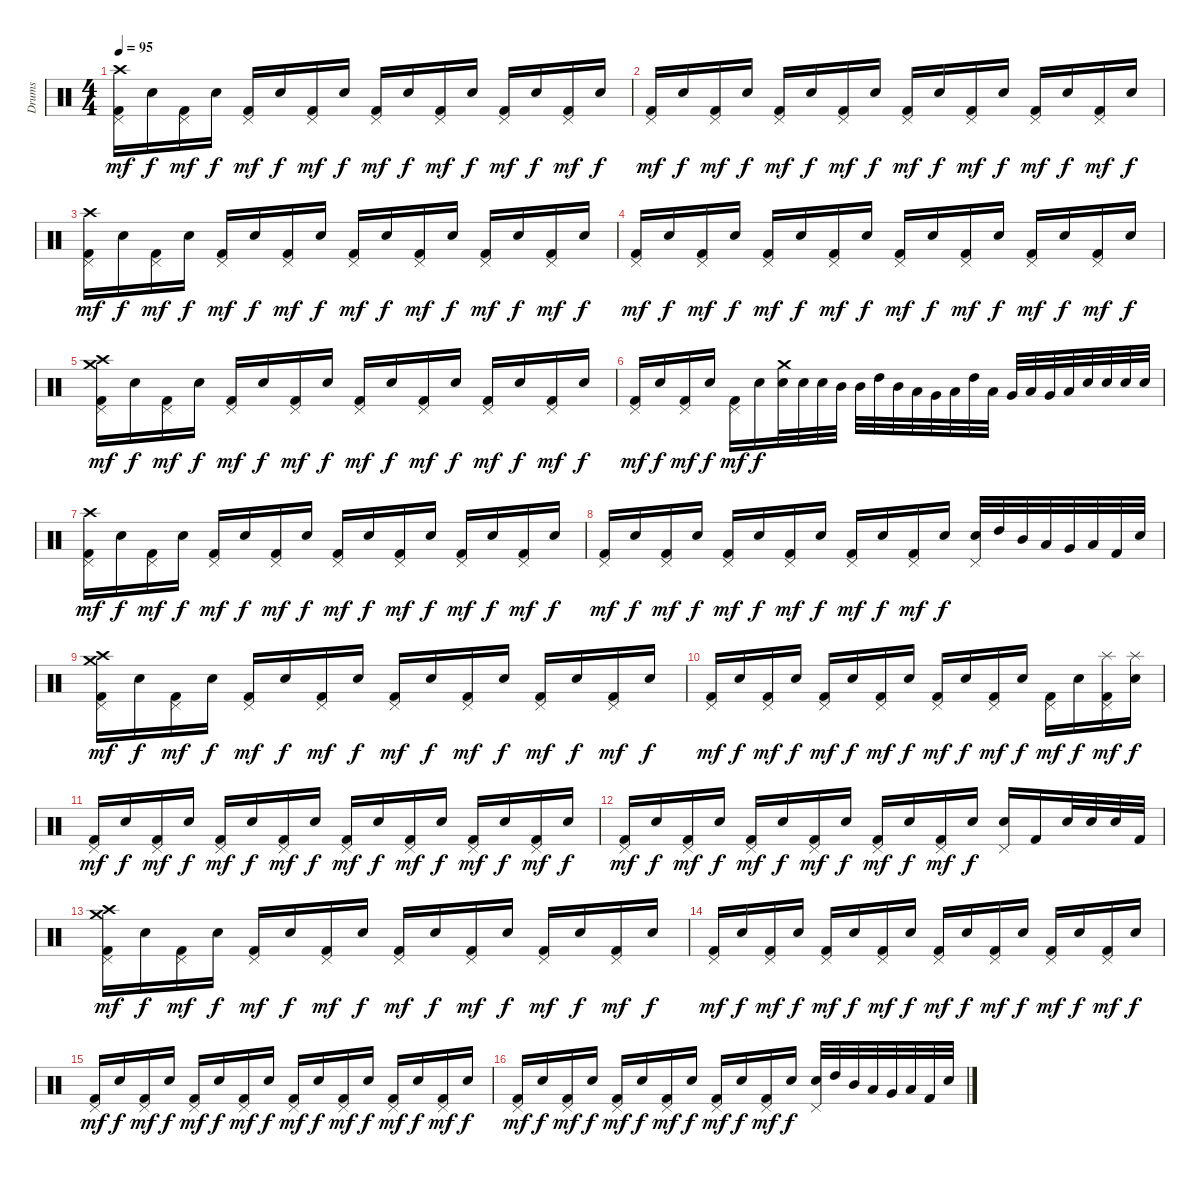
\track ("Drums" "Drums") {instrument percussion}
\staff {score}
\articulation defaults
\ts (4 4)
\tempo 95
\clef neutral
\ks c
("Crash high (hit)" "Pedal Hi-Hat (hit)" "Kick (hit) 2").16{dy mf} "Snare (hit) 2".16{dy f} ("Pedal Hi-Hat (hit)" "Kick (hit) 2").16{dy mf} "Snare (hit) 2".16{dy f} ("Pedal Hi-Hat (hit)" "Kick (hit) 2").16{dy mf} "Snare (hit) 2".16{dy f} ("Pedal Hi-Hat (hit)" "Kick (hit) 2").16{dy mf} "Snare (hit) 2".16{dy f} ("Pedal Hi-Hat (hit)" "Kick (hit) 2").16{dy mf} "Snare (hit) 2".16{dy f} ("Pedal Hi-Hat (hit)" "Kick (hit) 2").16{dy mf} "Snare (hit) 2".16{dy f} ("Pedal Hi-Hat (hit)" "Kick (hit) 2").16{dy mf} "Snare (hit) 2".16{dy f} ("Pedal Hi-Hat (hit)" "Kick (hit) 2").16{dy mf} "Snare (hit) 2".16{dy f} |
("Pedal Hi-Hat (hit)" "Kick (hit) 2").16{dy mf} "Snare (hit) 2".16{dy f} ("Pedal Hi-Hat (hit)" "Kick (hit) 2").16{dy mf} "Snare (hit) 2".16{dy f} ("Pedal Hi-Hat (hit)" "Kick (hit) 2").16{dy mf} "Snare (hit) 2".16{dy f} ("Pedal Hi-Hat (hit)" "Kick (hit) 2").16{dy mf} "Snare (hit) 2".16{dy f} ("Pedal Hi-Hat (hit)" "Kick (hit) 2").16{dy mf} "Snare (hit) 2".16{dy f} ("Pedal Hi-Hat (hit)" "Kick (hit) 2").16{dy mf} "Snare (hit) 2".16{dy f} ("Pedal Hi-Hat (hit)" "Kick (hit) 2").16{dy mf} "Snare (hit) 2".16{dy f} ("Pedal Hi-Hat (hit)" "Kick (hit) 2").16{dy mf} "Snare (hit) 2".16{dy f} |
("Crash high (hit)" "Pedal Hi-Hat (hit)" "Kick (hit) 2").16{dy mf} "Snare (hit) 2".16{dy f} ("Pedal Hi-Hat (hit)" "Kick (hit) 2").16{dy mf} "Snare (hit) 2".16{dy f} ("Pedal Hi-Hat (hit)" "Kick (hit) 2").16{dy mf} "Snare (hit) 2".16{dy f} ("Pedal Hi-Hat (hit)" "Kick (hit) 2").16{dy mf} "Snare (hit) 2".16{dy f} ("Pedal Hi-Hat (hit)" "Kick (hit) 2").16{dy mf} "Snare (hit) 2".16{dy f} ("Pedal Hi-Hat (hit)" "Kick (hit) 2").16{dy mf} "Snare (hit) 2".16{dy f} ("Pedal Hi-Hat (hit)" "Kick (hit) 2").16{dy mf} "Snare (hit) 2".16{dy f} ("Pedal Hi-Hat (hit)" "Kick (hit) 2").16{dy mf} "Snare (hit) 2".16{dy f} |
("Pedal Hi-Hat (hit)" "Kick (hit) 2").16{dy mf} "Snare (hit) 2".16{dy f} ("Pedal Hi-Hat (hit)" "Kick (hit) 2").16{dy mf} "Snare (hit) 2".16{dy f} ("Pedal Hi-Hat (hit)" "Kick (hit) 2").16{dy mf} "Snare (hit) 2".16{dy f} ("Pedal Hi-Hat (hit)" "Kick (hit) 2").16{dy mf} "Snare (hit) 2".16{dy f} ("Pedal Hi-Hat (hit)" "Kick (hit) 2").16{dy mf} "Snare (hit) 2".16{dy f} ("Pedal Hi-Hat (hit)" "Kick (hit) 2").16{dy mf} "Snare (hit) 2".16{dy f} ("Pedal Hi-Hat (hit)" "Kick (hit) 2").16{dy mf} "Snare (hit) 2".16{dy f} ("Pedal Hi-Hat (hit)" "Kick (hit) 2").16{dy mf} "Snare (hit) 2".16{dy f} |
("Crash high (hit)" "Crash medium (hit)" "Pedal Hi-Hat (hit)" "Kick (hit) 2").16{dy mf} "Snare (hit) 2".16{dy f} ("Pedal Hi-Hat (hit)" "Kick (hit) 2").16{dy mf} "Snare (hit) 2".16{dy f} ("Pedal Hi-Hat (hit)" "Kick (hit) 2").16{dy mf} "Snare (hit) 2".16{dy f} ("Pedal Hi-Hat (hit)" "Kick (hit) 2").16{dy mf} "Snare (hit) 2".16{dy f} ("Pedal Hi-Hat (hit)" "Kick (hit) 2").16{dy mf} "Snare (hit) 2".16{dy f} ("Pedal Hi-Hat (hit)" "Kick (hit) 2").16{dy mf} "Snare (hit) 2".16{dy f} ("Pedal Hi-Hat (hit)" "Kick (hit) 2").16{dy mf} "Snare (hit) 2".16{dy f} ("Pedal Hi-Hat (hit)" "Kick (hit) 2").16{dy mf} "Snare (hit) 2".16{dy f} |
("Pedal Hi-Hat (hit)" "Kick (hit) 2").16{dy mf} "Snare (hit) 2".16{dy f} ("Pedal Hi-Hat (hit)" "Kick (hit) 2").16{dy mf} "Snare (hit) 2".16{dy f} ("Pedal Hi-Hat (hit)" "Kick (hit) 2").16{dy mf} "Snare (hit) 2".16{dy f} ("Crash medium (hit)" "Snare (hit) 2").32 "Snare (hit) 2".32 "Snare (hit) 2".32 "Mid Tom (hit)".32 "Mid Tom (hit)".32 "High Tom (hit)".32 "Mid Tom (hit)".32 "Low Tom (hit)".32 "Very Low Tom (hit)".32 "Low Floor Tom (hit)".32 "High Tom (hit)".32 "Low Tom (hit)".32 "Very Low Tom (hit)".32 "Low Floor Tom (hit)".32 "Very Low Tom (hit)".32 "Low Floor Tom (hit)".32 "Snare (hit) 2".32 "Snare (hit) 2".32 "Snare (hit) 2".32 "Snare (hit) 2".32 |
("Crash high (hit)" "Pedal Hi-Hat (hit)" "Kick (hit) 2").16{dy mf} "Snare (hit) 2".16{dy f} ("Pedal Hi-Hat (hit)" "Kick (hit) 2").16{dy mf} "Snare (hit) 2".16{dy f} ("Pedal Hi-Hat (hit)" "Kick (hit) 2").16{dy mf} "Snare (hit) 2".16{dy f} ("Pedal Hi-Hat (hit)" "Kick (hit) 2").16{dy mf} "Snare (hit) 2".16{dy f} ("Pedal Hi-Hat (hit)" "Kick (hit) 2").16{dy mf} "Snare (hit) 2".16{dy f} ("Pedal Hi-Hat (hit)" "Kick (hit) 2").16{dy mf} "Snare (hit) 2".16{dy f} ("Pedal Hi-Hat (hit)" "Kick (hit) 2").16{dy mf} "Snare (hit) 2".16{dy f} ("Pedal Hi-Hat (hit)" "Kick (hit) 2").16{dy mf} "Snare (hit) 2".16{dy f} |
("Pedal Hi-Hat (hit)" "Kick (hit) 2").16{dy mf} "Snare (hit) 2".16{dy f} ("Pedal Hi-Hat (hit)" "Kick (hit) 2").16{dy mf} "Snare (hit) 2".16{dy f} ("Pedal Hi-Hat (hit)" "Kick (hit) 2").16{dy mf} "Snare (hit) 2".16{dy f} ("Pedal Hi-Hat (hit)" "Kick (hit) 2").16{dy mf} "Snare (hit) 2".16{dy f} ("Pedal Hi-Hat (hit)" "Kick (hit) 2").16{dy mf} "Snare (hit) 2".16{dy f} ("Pedal Hi-Hat (hit)" "Kick (hit) 2").16{dy mf} "Snare (hit) 2".16{dy f} ("Pedal Hi-Hat (hit)" "Snare (hit) 2").32 "High Tom (hit)".32 "Mid Tom (hit)".32 "Low Tom (hit)".32 "Very Low Tom (hit)".32 "Low Floor Tom (hit)".32 "Kick (hit) 2".32 "Snare (hit) 2".32 |
("Crash high (hit)" "Crash medium (hit)" "Pedal Hi-Hat (hit)" "Kick (hit) 2").16{dy mf} "Snare (hit) 2".16{dy f} ("Pedal Hi-Hat (hit)" "Kick (hit) 2").16{dy mf} "Snare (hit) 2".16{dy f} ("Pedal Hi-Hat (hit)" "Kick (hit) 2").16{dy mf} "Snare (hit) 2".16{dy f} ("Pedal Hi-Hat (hit)" "Kick (hit) 2").16{dy mf} "Snare (hit) 2".16{dy f} ("Pedal Hi-Hat (hit)" "Kick (hit) 2").16{dy mf} "Snare (hit) 2".16{dy f} ("Pedal Hi-Hat (hit)" "Kick (hit) 2").16{dy mf} "Snare (hit) 2".16{dy f} ("Pedal Hi-Hat (hit)" "Kick (hit) 2").16{dy mf} "Snare (hit) 2".16{dy f} ("Pedal Hi-Hat (hit)" "Kick (hit) 2").16{dy mf} "Snare (hit) 2".16{dy f} |
("Pedal Hi-Hat (hit)" "Kick (hit) 2").16{dy mf} "Snare (hit) 2".16{dy f} ("Pedal Hi-Hat (hit)" "Kick (hit) 2").16{dy mf} "Snare (hit) 2".16{dy f} ("Pedal Hi-Hat (hit)" "Kick (hit) 2").16{dy mf} "Snare (hit) 2".16{dy f} ("Pedal Hi-Hat (hit)" "Kick (hit) 2").16{dy mf} "Snare (hit) 2".16{dy f} ("Pedal Hi-Hat (hit)" "Kick (hit) 2").16{dy mf} "Snare (hit) 2".16{dy f} ("Pedal Hi-Hat (hit)" "Kick (hit) 2").16{dy mf} "Snare (hit) 2".16{dy f} ("Pedal Hi-Hat (hit)" "Kick (hit) 2").16{dy mf} "Snare (hit) 2".16{dy f} ("Splash (hit)" "Pedal Hi-Hat (hit)" "Kick (hit) 2").16{dy mf} ("Splash (hit)" "Snare (hit) 2").16{dy f} |
("Pedal Hi-Hat (hit)" "Kick (hit) 2").16{dy mf} "Snare (hit) 2".16{dy f} ("Pedal Hi-Hat (hit)" "Kick (hit) 2").16{dy mf} "Snare (hit) 2".16{dy f} ("Pedal Hi-Hat (hit)" "Kick (hit) 2").16{dy mf} "Snare (hit) 2".16{dy f} ("Pedal Hi-Hat (hit)" "Kick (hit) 2").16{dy mf} "Snare (hit) 2".16{dy f} ("Pedal Hi-Hat (hit)" "Kick (hit) 2").16{dy mf} "Snare (hit) 2".16{dy f} ("Pedal Hi-Hat (hit)" "Kick (hit) 2").16{dy mf} "Snare (hit) 2".16{dy f} ("Pedal Hi-Hat (hit)" "Kick (hit) 2").16{dy mf} "Snare (hit) 2".16{dy f} ("Pedal Hi-Hat (hit)" "Kick (hit) 2").16{dy mf} "Snare (hit) 2".16{dy f} |
("Pedal Hi-Hat (hit)" "Kick (hit) 2").16{dy mf} "Snare (hit) 2".16{dy f} ("Pedal Hi-Hat (hit)" "Kick (hit) 2").16{dy mf} "Snare (hit) 2".16{dy f} ("Pedal Hi-Hat (hit)" "Kick (hit) 2").16{dy mf} "Snare (hit) 2".16{dy f} ("Pedal Hi-Hat (hit)" "Kick (hit) 2").16{dy mf} "Snare (hit) 2".16{dy f} ("Pedal Hi-Hat (hit)" "Kick (hit) 2").16{dy mf} "Snare (hit) 2".16{dy f} ("Pedal Hi-Hat (hit)" "Kick (hit) 2").16{dy mf} "Snare (hit) 2".16{dy f} ("Pedal Hi-Hat (hit)" "Snare (hit) 2").16 "Kick (hit) 2".16 "Snare (hit) 2".32 "Snare (hit) 2".32 "Snare (hit) 2".32 "Kick (hit) 2".32 |
("Crash high (hit)" "Crash medium (hit)" "Pedal Hi-Hat (hit)" "Kick (hit) 2").16{dy mf} "Snare (hit) 2".16{dy f} ("Pedal Hi-Hat (hit)" "Kick (hit) 2").16{dy mf} "Snare (hit) 2".16{dy f} ("Pedal Hi-Hat (hit)" "Kick (hit) 2").16{dy mf} "Snare (hit) 2".16{dy f} ("Pedal Hi-Hat (hit)" "Kick (hit) 2").16{dy mf} "Snare (hit) 2".16{dy f} ("Pedal Hi-Hat (hit)" "Kick (hit) 2").16{dy mf} "Snare (hit) 2".16{dy f} ("Pedal Hi-Hat (hit)" "Kick (hit) 2").16{dy mf} "Snare (hit) 2".16{dy f} ("Pedal Hi-Hat (hit)" "Kick (hit) 2").16{dy mf} "Snare (hit) 2".16{dy f} ("Pedal Hi-Hat (hit)" "Kick (hit) 2").16{dy mf} "Snare (hit) 2".16{dy f} |
("Pedal Hi-Hat (hit)" "Kick (hit) 2").16{dy mf} "Snare (hit) 2".16{dy f} ("Pedal Hi-Hat (hit)" "Kick (hit) 2").16{dy mf} "Snare (hit) 2".16{dy f} ("Pedal Hi-Hat (hit)" "Kick (hit) 2").16{dy mf} "Snare (hit) 2".16{dy f} ("Pedal Hi-Hat (hit)" "Kick (hit) 2").16{dy mf} "Snare (hit) 2".16{dy f} ("Pedal Hi-Hat (hit)" "Kick (hit) 2").16{dy mf} "Snare (hit) 2".16{dy f} ("Pedal Hi-Hat (hit)" "Kick (hit) 2").16{dy mf} "Snare (hit) 2".16{dy f} ("Pedal Hi-Hat (hit)" "Kick (hit) 2").16{dy mf} "Snare (hit) 2".16{dy f} ("Pedal Hi-Hat (hit)" "Kick (hit) 2").16{dy mf} "Snare (hit) 2".16{dy f} |
("Pedal Hi-Hat (hit)" "Kick (hit) 2").16{dy mf} "Snare (hit) 2".16{dy f} ("Pedal Hi-Hat (hit)" "Kick (hit) 2").16{dy mf} "Snare (hit) 2".16{dy f} ("Pedal Hi-Hat (hit)" "Kick (hit) 2").16{dy mf} "Snare (hit) 2".16{dy f} ("Pedal Hi-Hat (hit)" "Kick (hit) 2").16{dy mf} "Snare (hit) 2".16{dy f} ("Pedal Hi-Hat (hit)" "Kick (hit) 2").16{dy mf} "Snare (hit) 2".16{dy f} ("Pedal Hi-Hat (hit)" "Kick (hit) 2").16{dy mf} "Snare (hit) 2".16{dy f} ("Pedal Hi-Hat (hit)" "Kick (hit) 2").16{dy mf} "Snare (hit) 2".16{dy f} ("Pedal Hi-Hat (hit)" "Kick (hit) 2").16{dy mf} "Snare (hit) 2".16{dy f} |
("Pedal Hi-Hat (hit)" "Kick (hit) 2").16{dy mf} "Snare (hit) 2".16{dy f} ("Pedal Hi-Hat (hit)" "Kick (hit) 2").16{dy mf} "Snare (hit) 2".16{dy f} ("Pedal Hi-Hat (hit)" "Kick (hit) 2").16{dy mf} "Snare (hit) 2".16{dy f} ("Pedal Hi-Hat (hit)" "Kick (hit) 2").16{dy mf} "Snare (hit) 2".16{dy f} ("Pedal Hi-Hat (hit)" "Kick (hit) 2").16{dy mf} "Snare (hit) 2".16{dy f} ("Pedal Hi-Hat (hit)" "Kick (hit) 2").16{dy mf} "Snare (hit) 2".16{dy f} ("Pedal Hi-Hat (hit)" "Snare (hit) 2").32 "High Tom (hit)".32 "Mid Tom (hit)".32 "Low Tom (hit)".32 "Very Low Tom (hit)".32 "Low Floor Tom (hit)".32 "Kick (hit) 2".32 "Snare (hit) 2".32
